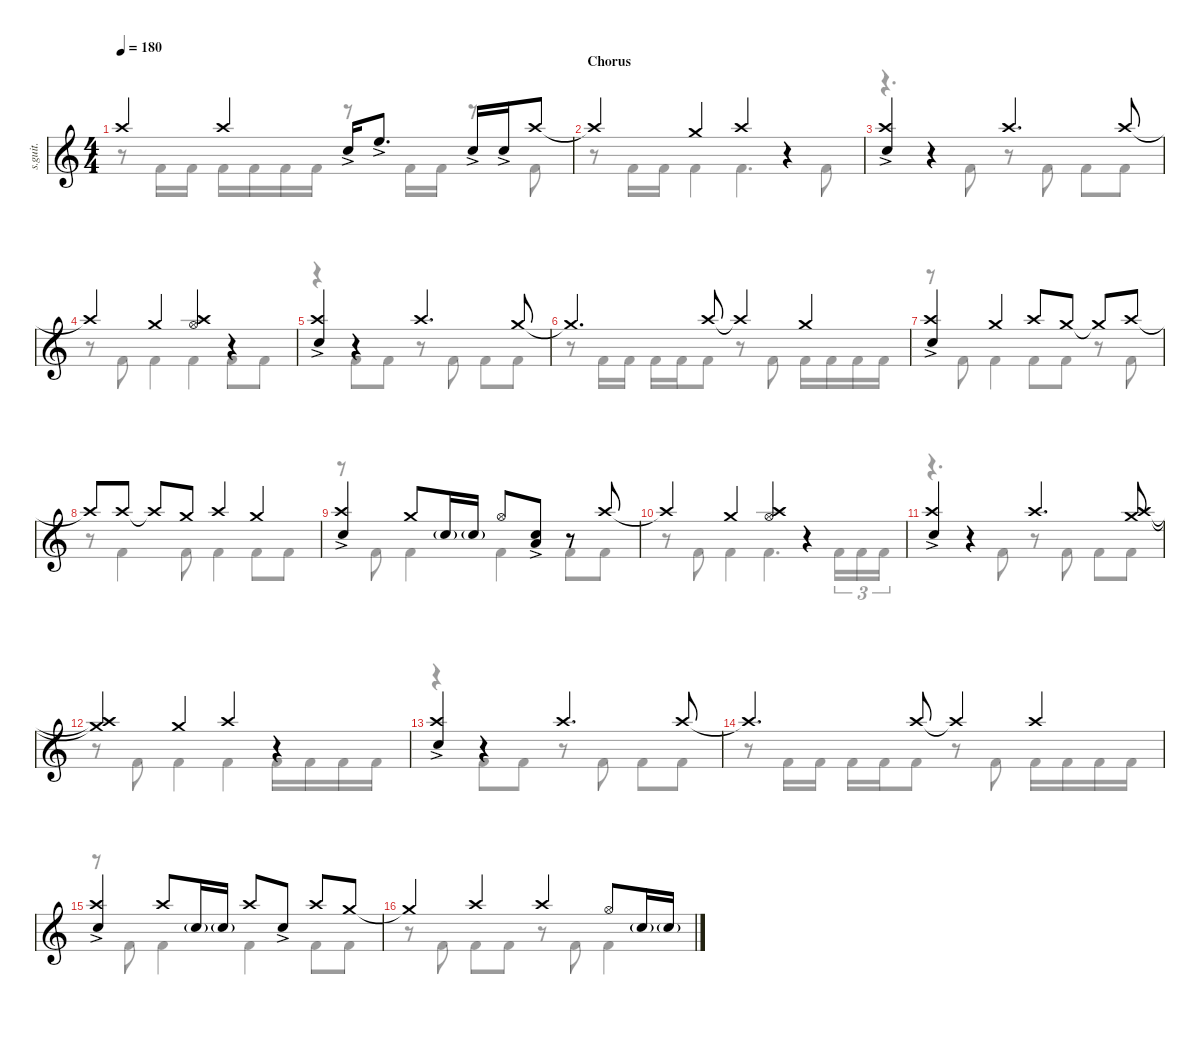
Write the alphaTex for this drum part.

\defaultSystemsLayout 4
\hideDynamics
\bracketExtendMode nobrackets
\track ("Percussion" "s.guit.") {instrument percussion}
\staff {score}
\articulation defaults
\voice
\ts (4 4)
\tempo 180
\clef g2
\ks c "Crash high (hit)".4{lyrics (0 "") lyrics (1 "") lyrics (2 "") lyrics (3 "") lyrics (4 "") dy f} "Crash high (hit)".4{lyrics (0 "") lyrics (1 "") lyrics (2 "") lyrics (3 "") lyrics (4 "")} "Snare (hit) 2"{ac}.16{lyrics (0 "") lyrics (1 "") lyrics (2 "") lyrics (3 "") lyrics (4 "")} "High Floor Tom (hit)"{ac}.8{d lyrics (0 "") lyrics (1 "") lyrics (2 "") lyrics (3 "") lyrics (4 "")} "Snare (hit) 2"{ac}.16{lyrics (0 "") lyrics (1 "") lyrics (2 "") lyrics (3 "") lyrics (4 "")} "Snare (hit) 2"{ac}.16{lyrics (0 "") lyrics (1 "") lyrics (2 "") lyrics (3 "") lyrics (4 "")} "Crash high (hit)".8{lyrics (0 "") lyrics (1 "") lyrics (2 "") lyrics (3 "") lyrics (4 "")}
|
\section ("" "Chorus")
"Crash high (hit)"{t}.4{lyrics (0 "") lyrics (1 "") lyrics (2 "") lyrics (3 "") lyrics (4 "")} "Crash medium (hit)".4{lyrics (0 "") lyrics (1 "") lyrics (2 "") lyrics (3 "") lyrics (4 "")} "Crash high (hit)".4{lyrics (0 "") lyrics (1 "") lyrics (2 "") lyrics (3 "") lyrics (4 "")} r.4 |
("Snare (hit) 2"{ac} "Crash high (hit)").4{lyrics (0 "") lyrics (1 "") lyrics (2 "") lyrics (3 "") lyrics (4 "")} r.4 "Crash high (hit)".4{d lyrics (0 "") lyrics (1 "") lyrics (2 "") lyrics (3 "") lyrics (4 "")} "Crash high (hit)".8{lyrics (0 "") lyrics (1 "") lyrics (2 "") lyrics (3 "") lyrics (4 "")} |
"Crash high (hit)"{t}.4{lyrics (0 "") lyrics (1 "") lyrics (2 "") lyrics (3 "") lyrics (4 "")} "Crash medium (hit)".4{lyrics (0 "") lyrics (1 "") lyrics (2 "") lyrics (3 "") lyrics (4 "")} ("Crash high (hit)" "Hi-Hat (open)").4{lyrics (0 "") lyrics (1 "") lyrics (2 "") lyrics (3 "") lyrics (4 "")} r.4 |
("Snare (hit) 2"{ac} "Crash high (hit)").4{lyrics (0 "") lyrics (1 "") lyrics (2 "") lyrics (3 "") lyrics (4 "")} r.4 "Crash high (hit)".4{d lyrics (0 "") lyrics (1 "") lyrics (2 "") lyrics (3 "") lyrics (4 "")} "Crash medium (hit)".8{lyrics (0 "") lyrics (1 "") lyrics (2 "") lyrics (3 "") lyrics (4 "")} |
"Crash medium (hit)"{t}.4{d lyrics (0 "") lyrics (1 "") lyrics (2 "") lyrics (3 "") lyrics (4 "")} "Crash high (hit)".8{lyrics (0 "") lyrics (1 "") lyrics (2 "") lyrics (3 "") lyrics (4 "")} "Crash high (hit)"{t}.4{lyrics (0 "") lyrics (1 "") lyrics (2 "") lyrics (3 "") lyrics (4 "")} "Crash medium (hit)".4{lyrics (0 "") lyrics (1 "") lyrics (2 "") lyrics (3 "") lyrics (4 "")} |
("Snare (hit) 2"{ac} "Crash high (hit)").4{lyrics (0 "") lyrics (1 "") lyrics (2 "") lyrics (3 "") lyrics (4 "")} "Crash medium (hit)".4{lyrics (0 "") lyrics (1 "") lyrics (2 "") lyrics (3 "") lyrics (4 "")} "Crash high (hit)".8{lyrics (0 "") lyrics (1 "") lyrics (2 "") lyrics (3 "") lyrics (4 "")} "Crash medium (hit)".8{lyrics (0 "") lyrics (1 "") lyrics (2 "") lyrics (3 "") lyrics (4 "")} "Crash medium (hit)"{t}.8{lyrics (0 "") lyrics (1 "") lyrics (2 "") lyrics (3 "") lyrics (4 "")} "Crash high (hit)".8{lyrics (0 "") lyrics (1 "") lyrics (2 "") lyrics (3 "") lyrics (4 "")} |
"Crash high (hit)"{t}.8{lyrics (0 "") lyrics (1 "") lyrics (2 "") lyrics (3 "") lyrics (4 "")} "Crash high (hit)".8{lyrics (0 "") lyrics (1 "") lyrics (2 "") lyrics (3 "") lyrics (4 "")} "Crash high (hit)"{t}.8{lyrics (0 "") lyrics (1 "") lyrics (2 "") lyrics (3 "") lyrics (4 "")} "Crash medium (hit)".8{lyrics (0 "") lyrics (1 "") lyrics (2 "") lyrics (3 "") lyrics (4 "")} "Crash high (hit)".4{lyrics (0 "") lyrics (1 "") lyrics (2 "") lyrics (3 "") lyrics (4 "")} "Crash medium (hit)".4{lyrics (0 "") lyrics (1 "") lyrics (2 "") lyrics (3 "") lyrics (4 "")} |
("Snare (hit) 2"{ac} "Crash high (hit)").4{lyrics (0 "") lyrics (1 "") lyrics (2 "") lyrics (3 "") lyrics (4 "")} "Crash medium (hit)".8{lyrics (0 "") lyrics (1 "") lyrics (2 "") lyrics (3 "") lyrics (4 "")} "Snare (hit) 2"{g}.16{lyrics (0 "") lyrics (1 "") lyrics (2 "") lyrics (3 "") lyrics (4 "")} "Snare (hit) 2"{g}.16{lyrics (0 "") lyrics (1 "") lyrics (2 "") lyrics (3 "") lyrics (4 "")} "Hi-Hat (open)".8{lyrics (0 "") lyrics (1 "") lyrics (2 "") lyrics (3 "") lyrics (4 "")} ("Snare (hit) 2"{ac} "Low Tom (hit)"{ac}).8{lyrics (0 "") lyrics (1 "") lyrics (2 "") lyrics (3 "") lyrics (4 "")} r.8 "Crash high (hit)".8{lyrics (0 "") lyrics (1 "") lyrics (2 "") lyrics (3 "") lyrics (4 "")} |
"Crash high (hit)"{t}.4{lyrics (0 "") lyrics (1 "") lyrics (2 "") lyrics (3 "") lyrics (4 "")} "Crash medium (hit)".4{lyrics (0 "") lyrics (1 "") lyrics (2 "") lyrics (3 "") lyrics (4 "")} ("Crash high (hit)" "Hi-Hat (open)").4{lyrics (0 "") lyrics (1 "") lyrics (2 "") lyrics (3 "") lyrics (4 "")} r.4 |
("Snare (hit) 2"{ac} "Crash high (hit)").4{lyrics (0 "") lyrics (1 "") lyrics (2 "") lyrics (3 "") lyrics (4 "")} r.4 "Crash high (hit)".4{d lyrics (0 "") lyrics (1 "") lyrics (2 "") lyrics (3 "") lyrics (4 "")} ("Crash high (hit)" "Crash medium (hit)").8{lyrics (0 "") lyrics (1 "") lyrics (2 "") lyrics (3 "") lyrics (4 "")} |
("Crash high (hit)"{t} "Crash medium (hit)"{t}).4{lyrics (0 "") lyrics (1 "") lyrics (2 "") lyrics (3 "") lyrics (4 "")} "Crash medium (hit)".4{lyrics (0 "") lyrics (1 "") lyrics (2 "") lyrics (3 "") lyrics (4 "")} "Crash high (hit)".4{lyrics (0 "") lyrics (1 "") lyrics (2 "") lyrics (3 "") lyrics (4 "")} r.4 |
("Snare (hit) 2"{ac} "Crash high (hit)").4{lyrics (0 "") lyrics (1 "") lyrics (2 "") lyrics (3 "") lyrics (4 "")} r.4 "Crash high (hit)".4{d lyrics (0 "") lyrics (1 "") lyrics (2 "") lyrics (3 "") lyrics (4 "")} "Crash high (hit)".8{lyrics (0 "") lyrics (1 "") lyrics (2 "") lyrics (3 "") lyrics (4 "")} |
"Crash high (hit)"{t}.4{d lyrics (0 "") lyrics (1 "") lyrics (2 "") lyrics (3 "") lyrics (4 "")} "Crash high (hit)".8{lyrics (0 "") lyrics (1 "") lyrics (2 "") lyrics (3 "") lyrics (4 "")} "Crash high (hit)"{t}.4{lyrics (0 "") lyrics (1 "") lyrics (2 "") lyrics (3 "") lyrics (4 "")} "Crash high (hit)".4{lyrics (0 "") lyrics (1 "") lyrics (2 "") lyrics (3 "") lyrics (4 "")} |
("Snare (hit) 2"{ac} "Crash high (hit)").4{lyrics (0 "") lyrics (1 "") lyrics (2 "") lyrics (3 "") lyrics (4 "")} "Crash high (hit)".8{lyrics (0 "") lyrics (1 "") lyrics (2 "") lyrics (3 "") lyrics (4 "")} "Snare (hit) 2"{g}.16{lyrics (0 "") lyrics (1 "") lyrics (2 "") lyrics (3 "") lyrics (4 "")} "Snare (hit) 2"{g}.16{lyrics (0 "") lyrics (1 "") lyrics (2 "") lyrics (3 "") lyrics (4 "")} "Crash high (hit)".8{lyrics (0 "") lyrics (1 "") lyrics (2 "") lyrics (3 "") lyrics (4 "")} "Snare (hit) 2"{ac}.8{lyrics (0 "") lyrics (1 "") lyrics (2 "") lyrics (3 "") lyrics (4 "")} "Crash high (hit)".8{lyrics (0 "") lyrics (1 "") lyrics (2 "") lyrics (3 "") lyrics (4 "")} "Crash medium (hit)".8{lyrics (0 "") lyrics (1 "") lyrics (2 "") lyrics (3 "") lyrics (4 "")} |
"Crash medium (hit)"{t}.4{lyrics (0 "") lyrics (1 "") lyrics (2 "") lyrics (3 "") lyrics (4 "")} "Crash high (hit)".4{lyrics (0 "") lyrics (1 "") lyrics (2 "") lyrics (3 "") lyrics (4 "")} "Crash high (hit)".4{lyrics (0 "") lyrics (1 "") lyrics (2 "") lyrics (3 "") lyrics (4 "")} "Hi-Hat (open)".8{lyrics (0 "") lyrics (1 "") lyrics (2 "") lyrics (3 "") lyrics (4 "")} "Snare (hit) 2"{g}.16{lyrics (0 "") lyrics (1 "") lyrics (2 "") lyrics (3 "") lyrics (4 "")} "Snare (hit) 2"{g}.16{lyrics (0 "") lyrics (1 "") lyrics (2 "") lyrics (3 "") lyrics (4 "")}
\voice
\clef g2
\ottava regular
\simile none
\ks c
r.8{dy f} "Kick (hit) 2".16{lyrics (0 "") lyrics (1 "") lyrics (2 "") lyrics (3 "") lyrics (4 "")} "Kick (hit) 2".16{lyrics (0 "") lyrics (1 "") lyrics (2 "") lyrics (3 "") lyrics (4 "")} "Kick (hit) 2".16{lyrics (0 "") lyrics (1 "") lyrics (2 "") lyrics (3 "") lyrics (4 "")} "Kick (hit) 2".16{lyrics (0 "") lyrics (1 "") lyrics (2 "") lyrics (3 "") lyrics (4 "")} "Kick (hit) 2".16{lyrics (0 "") lyrics (1 "") lyrics (2 "") lyrics (3 "") lyrics (4 "")} "Kick (hit) 2".16{lyrics (0 "") lyrics (1 "") lyrics (2 "") lyrics (3 "") lyrics (4 "")} r.8 "Kick (hit) 2".16{lyrics (0 "") lyrics (1 "") lyrics (2 "") lyrics (3 "") lyrics (4 "")} "Kick (hit) 2".16{lyrics (0 "") lyrics (1 "") lyrics (2 "") lyrics (3 "") lyrics (4 "")} r.8 "Kick (hit) 2".8{lyrics (0 "") lyrics (1 "") lyrics (2 "") lyrics (3 "") lyrics (4 "")} |
r.8 "Kick (hit) 2".16{lyrics (0 "") lyrics (1 "") lyrics (2 "") lyrics (3 "") lyrics (4 "")} "Kick (hit) 2".16{lyrics (0 "") lyrics (1 "") lyrics (2 "") lyrics (3 "") lyrics (4 "")} "Kick (hit) 2".4{lyrics (0 "") lyrics (1 "") lyrics (2 "") lyrics (3 "") lyrics (4 "")} "Kick (hit) 2".4{d lyrics (0 "") lyrics (1 "") lyrics (2 "") lyrics (3 "") lyrics (4 "")} "Kick (hit) 2".8{lyrics (0 "") lyrics (1 "") lyrics (2 "") lyrics (3 "") lyrics (4 "")} |
r.4{d} "Kick (hit) 2".8{lyrics (0 "") lyrics (1 "") lyrics (2 "") lyrics (3 "") lyrics (4 "")} r.8 "Kick (hit) 2".8{lyrics (0 "") lyrics (1 "") lyrics (2 "") lyrics (3 "") lyrics (4 "")} "Kick (hit) 2".8{lyrics (0 "") lyrics (1 "") lyrics (2 "") lyrics (3 "") lyrics (4 "")} "Kick (hit) 2".8{lyrics (0 "") lyrics (1 "") lyrics (2 "") lyrics (3 "") lyrics (4 "")} |
r.8 "Kick (hit) 2".8{lyrics (0 "") lyrics (1 "") lyrics (2 "") lyrics (3 "") lyrics (4 "")} "Kick (hit) 2".4{lyrics (0 "") lyrics (1 "") lyrics (2 "") lyrics (3 "") lyrics (4 "")} "Kick (hit) 2".4{lyrics (0 "") lyrics (1 "") lyrics (2 "") lyrics (3 "") lyrics (4 "")} "Kick (hit) 2".8{lyrics (0 "") lyrics (1 "") lyrics (2 "") lyrics (3 "") lyrics (4 "")} "Kick (hit) 2".8{lyrics (0 "") lyrics (1 "") lyrics (2 "") lyrics (3 "") lyrics (4 "")} |
r.4 "Kick (hit) 2".8{lyrics (0 "") lyrics (1 "") lyrics (2 "") lyrics (3 "") lyrics (4 "")} "Kick (hit) 2".8{lyrics (0 "") lyrics (1 "") lyrics (2 "") lyrics (3 "") lyrics (4 "")} r.8 "Kick (hit) 2".8{lyrics (0 "") lyrics (1 "") lyrics (2 "") lyrics (3 "") lyrics (4 "")} "Kick (hit) 2".8{lyrics (0 "") lyrics (1 "") lyrics (2 "") lyrics (3 "") lyrics (4 "")} "Kick (hit) 2".8{lyrics (0 "") lyrics (1 "") lyrics (2 "") lyrics (3 "") lyrics (4 "")} |
r.8 "Kick (hit) 2".16{lyrics (0 "") lyrics (1 "") lyrics (2 "") lyrics (3 "") lyrics (4 "")} "Kick (hit) 2".16{lyrics (0 "") lyrics (1 "") lyrics (2 "") lyrics (3 "") lyrics (4 "")} "Kick (hit) 2".16{lyrics (0 "") lyrics (1 "") lyrics (2 "") lyrics (3 "") lyrics (4 "")} "Kick (hit) 2".16{lyrics (0 "") lyrics (1 "") lyrics (2 "") lyrics (3 "") lyrics (4 "")} "Kick (hit) 2".8{lyrics (0 "") lyrics (1 "") lyrics (2 "") lyrics (3 "") lyrics (4 "")} r.8 "Kick (hit) 2".8{lyrics (0 "") lyrics (1 "") lyrics (2 "") lyrics (3 "") lyrics (4 "")} "Kick (hit) 2".16{lyrics (0 "") lyrics (1 "") lyrics (2 "") lyrics (3 "") lyrics (4 "")} "Kick (hit) 2".16{lyrics (0 "") lyrics (1 "") lyrics (2 "") lyrics (3 "") lyrics (4 "")} "Kick (hit) 2".16{lyrics (0 "") lyrics (1 "") lyrics (2 "") lyrics (3 "") lyrics (4 "")} "Kick (hit) 2".16{lyrics (0 "") lyrics (1 "") lyrics (2 "") lyrics (3 "") lyrics (4 "")} |
r.8 "Kick (hit) 2".8{lyrics (0 "") lyrics (1 "") lyrics (2 "") lyrics (3 "") lyrics (4 "")} "Kick (hit) 2".4{lyrics (0 "") lyrics (1 "") lyrics (2 "") lyrics (3 "") lyrics (4 "")} "Kick (hit) 2".8{lyrics (0 "") lyrics (1 "") lyrics (2 "") lyrics (3 "") lyrics (4 "")} "Kick (hit) 2".8{lyrics (0 "") lyrics (1 "") lyrics (2 "") lyrics (3 "") lyrics (4 "")} r.8 "Kick (hit) 2".8{lyrics (0 "") lyrics (1 "") lyrics (2 "") lyrics (3 "") lyrics (4 "")} |
r.8 "Kick (hit) 2".4{lyrics (0 "") lyrics (1 "") lyrics (2 "") lyrics (3 "") lyrics (4 "")} "Kick (hit) 2".8{lyrics (0 "") lyrics (1 "") lyrics (2 "") lyrics (3 "") lyrics (4 "")} "Kick (hit) 2".4{lyrics (0 "") lyrics (1 "") lyrics (2 "") lyrics (3 "") lyrics (4 "")} "Kick (hit) 2".8{lyrics (0 "") lyrics (1 "") lyrics (2 "") lyrics (3 "") lyrics (4 "")} "Kick (hit) 2".8{lyrics (0 "") lyrics (1 "") lyrics (2 "") lyrics (3 "") lyrics (4 "")} |
r.8 "Kick (hit) 2".8{lyrics (0 "") lyrics (1 "") lyrics (2 "") lyrics (3 "") lyrics (4 "")} "Kick (hit) 2".4{lyrics (0 "") lyrics (1 "") lyrics (2 "") lyrics (3 "") lyrics (4 "")} "Kick (hit) 2".4{lyrics (0 "") lyrics (1 "") lyrics (2 "") lyrics (3 "") lyrics (4 "")} "Kick (hit) 2".8{lyrics (0 "") lyrics (1 "") lyrics (2 "") lyrics (3 "") lyrics (4 "")} "Kick (hit) 2".8{lyrics (0 "") lyrics (1 "") lyrics (2 "") lyrics (3 "") lyrics (4 "")} |
r.8 "Kick (hit) 2".8{lyrics (0 "") lyrics (1 "") lyrics (2 "") lyrics (3 "") lyrics (4 "")} "Kick (hit) 2".4{lyrics (0 "") lyrics (1 "") lyrics (2 "") lyrics (3 "") lyrics (4 "")} "Kick (hit) 2".4{d lyrics (0 "") lyrics (1 "") lyrics (2 "") lyrics (3 "") lyrics (4 "")} "Kick (hit) 2".16{tu (3 2) lyrics (0 "") lyrics (1 "") lyrics (2 "") lyrics (3 "") lyrics (4 "")} "Kick (hit) 2".16{tu (3 2) lyrics (0 "") lyrics (1 "") lyrics (2 "") lyrics (3 "") lyrics (4 "")} "Kick (hit) 2".16{tu (3 2) lyrics (0 "") lyrics (1 "") lyrics (2 "") lyrics (3 "") lyrics (4 "")} |
r.4{d} "Kick (hit) 2".8{lyrics (0 "") lyrics (1 "") lyrics (2 "") lyrics (3 "") lyrics (4 "")} r.8 "Kick (hit) 2".8{lyrics (0 "") lyrics (1 "") lyrics (2 "") lyrics (3 "") lyrics (4 "")} "Kick (hit) 2".8{lyrics (0 "") lyrics (1 "") lyrics (2 "") lyrics (3 "") lyrics (4 "")} "Kick (hit) 2".8{lyrics (0 "") lyrics (1 "") lyrics (2 "") lyrics (3 "") lyrics (4 "")} |
r.8 "Kick (hit) 2".8{lyrics (0 "") lyrics (1 "") lyrics (2 "") lyrics (3 "") lyrics (4 "")} "Kick (hit) 2".4{lyrics (0 "") lyrics (1 "") lyrics (2 "") lyrics (3 "") lyrics (4 "")} "Kick (hit) 2".4{lyrics (0 "") lyrics (1 "") lyrics (2 "") lyrics (3 "") lyrics (4 "")} "Kick (hit) 2".16{lyrics (0 "") lyrics (1 "") lyrics (2 "") lyrics (3 "") lyrics (4 "")} "Kick (hit) 2".16{lyrics (0 "") lyrics (1 "") lyrics (2 "") lyrics (3 "") lyrics (4 "")} "Kick (hit) 2".16{lyrics (0 "") lyrics (1 "") lyrics (2 "") lyrics (3 "") lyrics (4 "")} "Kick (hit) 2".16{lyrics (0 "") lyrics (1 "") lyrics (2 "") lyrics (3 "") lyrics (4 "")} |
r.4 "Kick (hit) 2".8{lyrics (0 "") lyrics (1 "") lyrics (2 "") lyrics (3 "") lyrics (4 "")} "Kick (hit) 2".8{lyrics (0 "") lyrics (1 "") lyrics (2 "") lyrics (3 "") lyrics (4 "")} r.8 "Kick (hit) 2".8{lyrics (0 "") lyrics (1 "") lyrics (2 "") lyrics (3 "") lyrics (4 "")} "Kick (hit) 2".8{lyrics (0 "") lyrics (1 "") lyrics (2 "") lyrics (3 "") lyrics (4 "")} "Kick (hit) 2".8{lyrics (0 "") lyrics (1 "") lyrics (2 "") lyrics (3 "") lyrics (4 "")} |
r.8 "Kick (hit) 2".16{lyrics (0 "") lyrics (1 "") lyrics (2 "") lyrics (3 "") lyrics (4 "")} "Kick (hit) 2".16{lyrics (0 "") lyrics (1 "") lyrics (2 "") lyrics (3 "") lyrics (4 "")} "Kick (hit) 2".16{lyrics (0 "") lyrics (1 "") lyrics (2 "") lyrics (3 "") lyrics (4 "")} "Kick (hit) 2".16{lyrics (0 "") lyrics (1 "") lyrics (2 "") lyrics (3 "") lyrics (4 "")} "Kick (hit) 2".8{lyrics (0 "") lyrics (1 "") lyrics (2 "") lyrics (3 "") lyrics (4 "")} r.8 "Kick (hit) 2".8{lyrics (0 "") lyrics (1 "") lyrics (2 "") lyrics (3 "") lyrics (4 "")} "Kick (hit) 2".16{lyrics (0 "") lyrics (1 "") lyrics (2 "") lyrics (3 "") lyrics (4 "")} "Kick (hit) 2".16{lyrics (0 "") lyrics (1 "") lyrics (2 "") lyrics (3 "") lyrics (4 "")} "Kick (hit) 2".16{lyrics (0 "") lyrics (1 "") lyrics (2 "") lyrics (3 "") lyrics (4 "")} "Kick (hit) 2".16{lyrics (0 "") lyrics (1 "") lyrics (2 "") lyrics (3 "") lyrics (4 "")} |
r.8 "Kick (hit) 2".8{lyrics (0 "") lyrics (1 "") lyrics (2 "") lyrics (3 "") lyrics (4 "")} "Kick (hit) 2".4{lyrics (0 "") lyrics (1 "") lyrics (2 "") lyrics (3 "") lyrics (4 "")} "Kick (hit) 2".4{lyrics (0 "") lyrics (1 "") lyrics (2 "") lyrics (3 "") lyrics (4 "")} "Kick (hit) 2".8{lyrics (0 "") lyrics (1 "") lyrics (2 "") lyrics (3 "") lyrics (4 "")} "Kick (hit) 2".8{lyrics (0 "") lyrics (1 "") lyrics (2 "") lyrics (3 "") lyrics (4 "")} |
r.8 "Kick (hit) 2".8{lyrics (0 "") lyrics (1 "") lyrics (2 "") lyrics (3 "") lyrics (4 "")} "Kick (hit) 2".8{lyrics (0 "") lyrics (1 "") lyrics (2 "") lyrics (3 "") lyrics (4 "")} "Kick (hit) 2".8{lyrics (0 "") lyrics (1 "") lyrics (2 "") lyrics (3 "") lyrics (4 "")} r.8 "Kick (hit) 2".8{lyrics (0 "") lyrics (1 "") lyrics (2 "") lyrics (3 "") lyrics (4 "")} "Kick (hit) 2".4{lyrics (0 "") lyrics (1 "") lyrics (2 "") lyrics (3 "") lyrics (4 "")}
